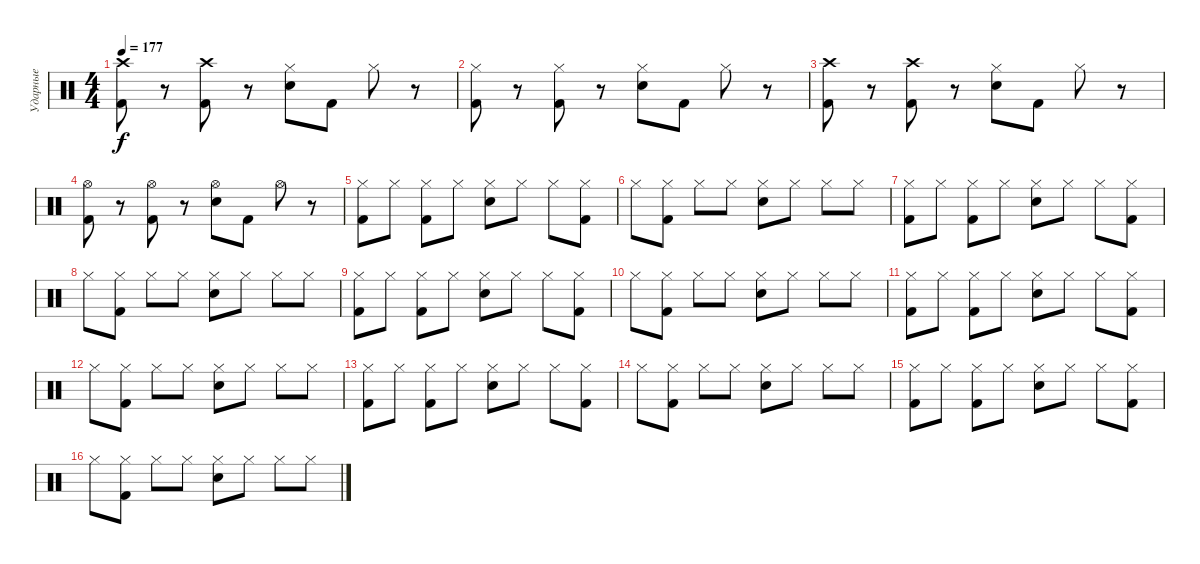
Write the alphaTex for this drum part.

\track ("Ударные" "Ударные") {instrument percussion}
\staff {score}
\articulation defaults
\ts (4 4)
\tempo 177
\clef neutral
\ks c
("Kick (hit) 2" "Crash high (hit)").8{dy f} r.8 ("Kick (hit) 2" "Crash high (hit)").8 r.8 ("Electric Snare (hit)" "Hi-Hat (closed)").8 "Kick (hit) 2".8 "Hi-Hat (closed)".8 r.8 |
("Kick (hit) 2" "Hi-Hat (closed)").8 r.8 ("Kick (hit) 2" "Hi-Hat (closed)").8 r.8 ("Electric Snare (hit)" "Hi-Hat (closed)").8 "Kick (hit) 2".8 "Hi-Hat (closed)".8 r.8 |
("Kick (hit) 2" "Crash high (hit)").8 r.8 ("Kick (hit) 2" "Crash high (hit)").8 r.8 ("Electric Snare (hit)" "Hi-Hat (closed)").8 "Kick (hit) 2".8 "Hi-Hat (closed)".8 r.8 |
("Kick (hit) 2" "Hi-Hat (open)").8 r.8 ("Kick (hit) 2" "Hi-Hat (open)").8 r.8 ("Electric Snare (hit)" "Hi-Hat (open)").8 "Kick (hit) 2".8 "Hi-Hat (open)".8 r.8 |
("Kick (hit) 2" "Hi-Hat (closed)").8 "Hi-Hat (closed)".8 ("Kick (hit) 2" "Hi-Hat (closed)").8 "Hi-Hat (closed)".8 ("Electric Snare (hit)" "Hi-Hat (closed)").8 "Hi-Hat (closed)".8 "Hi-Hat (closed)".8 ("Kick (hit) 2" "Hi-Hat (closed)").8 |
"Hi-Hat (closed)".8 ("Kick (hit) 2" "Hi-Hat (closed)").8 "Hi-Hat (closed)".8 "Hi-Hat (closed)".8 ("Electric Snare (hit)" "Hi-Hat (closed)").8 "Hi-Hat (closed)".8 "Hi-Hat (closed)".8 "Hi-Hat (closed)".8 |
("Kick (hit) 2" "Hi-Hat (closed)").8 "Hi-Hat (closed)".8 ("Kick (hit) 2" "Hi-Hat (closed)").8 "Hi-Hat (closed)".8 ("Electric Snare (hit)" "Hi-Hat (closed)").8 "Hi-Hat (closed)".8 "Hi-Hat (closed)".8 ("Kick (hit) 2" "Hi-Hat (closed)").8 |
"Hi-Hat (closed)".8 ("Kick (hit) 2" "Hi-Hat (closed)").8 "Hi-Hat (closed)".8 "Hi-Hat (closed)".8 ("Electric Snare (hit)" "Hi-Hat (closed)").8 "Hi-Hat (closed)".8 "Hi-Hat (closed)".8 "Hi-Hat (closed)".8 |
("Kick (hit) 2" "Hi-Hat (closed)").8 "Hi-Hat (closed)".8 ("Kick (hit) 2" "Hi-Hat (closed)").8 "Hi-Hat (closed)".8 ("Electric Snare (hit)" "Hi-Hat (closed)").8 "Hi-Hat (closed)".8 "Hi-Hat (closed)".8 ("Kick (hit) 2" "Hi-Hat (closed)").8 |
"Hi-Hat (closed)".8 ("Kick (hit) 2" "Hi-Hat (closed)").8 "Hi-Hat (closed)".8 "Hi-Hat (closed)".8 ("Electric Snare (hit)" "Hi-Hat (closed)").8 "Hi-Hat (closed)".8 "Hi-Hat (closed)".8 "Hi-Hat (closed)".8 |
("Kick (hit) 2" "Hi-Hat (closed)").8 "Hi-Hat (closed)".8 ("Kick (hit) 2" "Hi-Hat (closed)").8 "Hi-Hat (closed)".8 ("Electric Snare (hit)" "Hi-Hat (closed)").8 "Hi-Hat (closed)".8 "Hi-Hat (closed)".8 ("Kick (hit) 2" "Hi-Hat (closed)").8 |
"Hi-Hat (closed)".8 ("Kick (hit) 2" "Hi-Hat (closed)").8 "Hi-Hat (closed)".8 "Hi-Hat (closed)".8 ("Electric Snare (hit)" "Hi-Hat (closed)").8 "Hi-Hat (closed)".8 "Hi-Hat (closed)".8 "Hi-Hat (closed)".8 |
("Kick (hit) 2" "Hi-Hat (closed)").8 "Hi-Hat (closed)".8 ("Kick (hit) 2" "Hi-Hat (closed)").8 "Hi-Hat (closed)".8 ("Electric Snare (hit)" "Hi-Hat (closed)").8 "Hi-Hat (closed)".8 "Hi-Hat (closed)".8 ("Kick (hit) 2" "Hi-Hat (closed)").8 |
"Hi-Hat (closed)".8 ("Kick (hit) 2" "Hi-Hat (closed)").8 "Hi-Hat (closed)".8 "Hi-Hat (closed)".8 ("Electric Snare (hit)" "Hi-Hat (closed)").8 "Hi-Hat (closed)".8 "Hi-Hat (closed)".8 "Hi-Hat (closed)".8 |
("Kick (hit) 2" "Hi-Hat (closed)").8 "Hi-Hat (closed)".8 ("Kick (hit) 2" "Hi-Hat (closed)").8 "Hi-Hat (closed)".8 ("Electric Snare (hit)" "Hi-Hat (closed)").8 "Hi-Hat (closed)".8 "Hi-Hat (closed)".8 ("Kick (hit) 2" "Hi-Hat (closed)").8 |
"Hi-Hat (closed)".8 ("Kick (hit) 2" "Hi-Hat (closed)").8 "Hi-Hat (closed)".8 "Hi-Hat (closed)".8 ("Electric Snare (hit)" "Hi-Hat (closed)").8 "Hi-Hat (closed)".8 "Hi-Hat (closed)".8 "Hi-Hat (closed)".8
